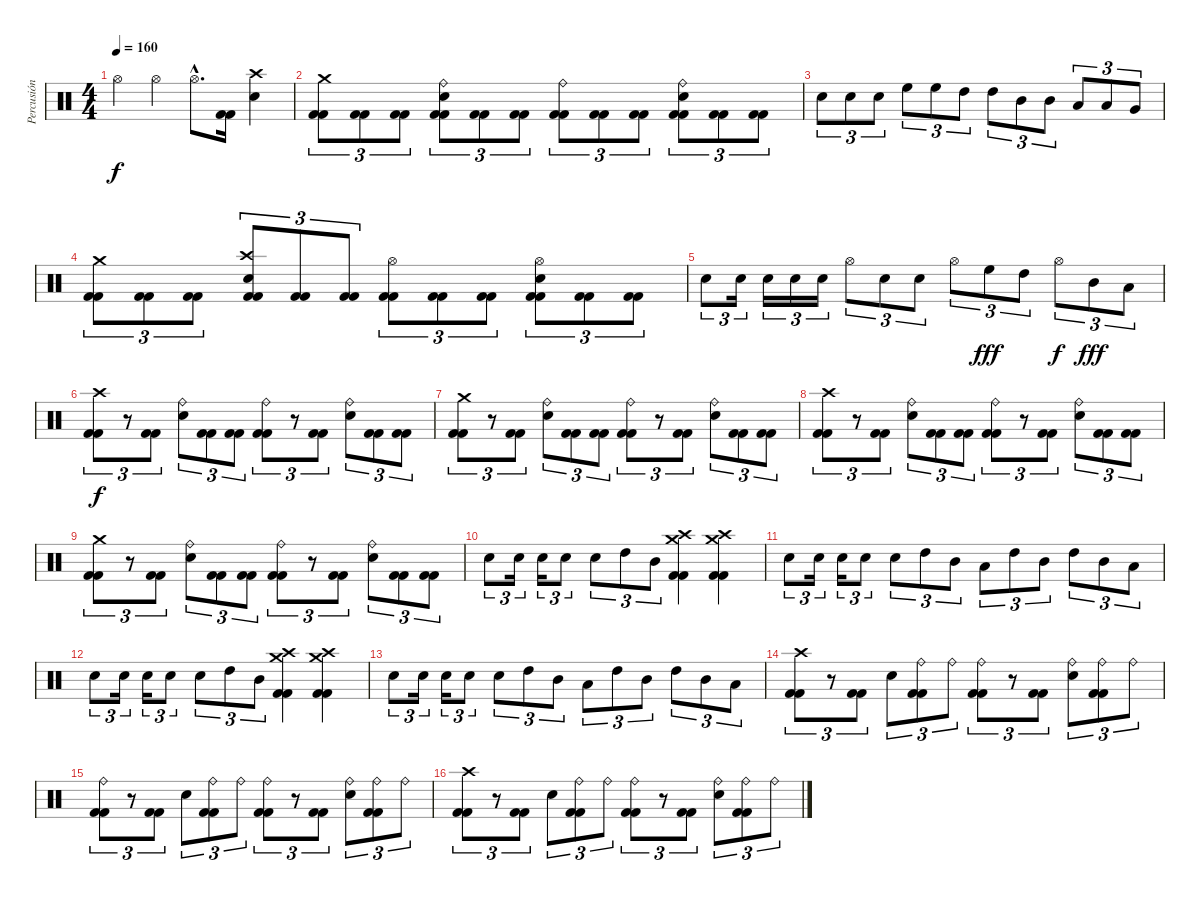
\track ("Percusión" "Percusión") {instrument percussion}
\staff {score}
\articulation defaults
\ts (4 4)
\tempo 160
\clef neutral
\ks c "Hi-Hat (open)".4{dy f} "Hi-Hat (open)".4 "Hi-Hat (open)"{hac}.8{d}
("Kick (hit) 2" "Kick (hit) 2").16 ("Crash high (hit)" "Snare (hit) 2").4 |
("Crash medium (hit)" "Kick (hit) 2" "Kick (hit) 2").8{tu (3 2)} ("Kick (hit) 2" "Kick (hit) 2").8{tu (3 2)} ("Kick (hit) 2" "Kick (hit) 2").8{tu (3 2)} ("Ride (bell)" "Snare (hit) 2" "Kick (hit) 2" "Kick (hit) 2").8{tu (3 2)} ("Kick (hit) 2" "Kick (hit) 2").8{tu (3 2)} ("Kick (hit) 2" "Kick (hit) 2").8{tu (3 2)} ("Ride (bell)" "Kick (hit) 2" "Kick (hit) 2").8{tu (3 2)} ("Kick (hit) 2" "Kick (hit) 2").8{tu (3 2)} ("Kick (hit) 2" "Kick (hit) 2").8{tu (3 2)} ("Ride (bell)" "Snare (hit) 2" "Kick (hit) 2" "Kick (hit) 2").8{tu (3 2)} ("Kick (hit) 2" "Kick (hit) 2").8{tu (3 2)} ("Kick (hit) 2" "Kick (hit) 2").8{tu (3 2)} |
"Snare (hit) 2".8{tu (3 2)} "Snare (hit) 2".8{tu (3 2)} "Snare (hit) 2".8{tu (3 2)} "High Floor Tom (hit)".8{tu (3 2)} "High Floor Tom (hit)".8{tu (3 2)} "High Tom (hit)".8{tu (3 2)} "High Tom (hit)".8{tu (3 2)} "Mid Tom (hit)".8{tu (3 2)} "Mid Tom (hit)".8{tu (3 2)} "Low Tom (hit)".8{tu (3 2)} "Low Tom (hit)".8{tu (3 2)} "Very Low Tom (hit)".8{tu (3 2)} |
("Crash medium (hit)" "Kick (hit) 2" "Kick (hit) 2").8{tu (3 2)} ("Kick (hit) 2" "Kick (hit) 2").8{tu (3 2)} ("Kick (hit) 2" "Kick (hit) 2").8{tu (3 2)} ("Crash high (hit)" "Snare (hit) 2" "Kick (hit) 2" "Kick (hit) 2").8{tu (3 2)} ("Kick (hit) 2" "Kick (hit) 2").8{tu (3 2)} ("Kick (hit) 2" "Kick (hit) 2").8{tu (3 2)} ("Hi-Hat (open)" "Kick (hit) 2" "Kick (hit) 2").8{tu (3 2)} ("Kick (hit) 2" "Kick (hit) 2").8{tu (3 2)} ("Kick (hit) 2" "Kick (hit) 2").8{tu (3 2)} ("Hi-Hat (open)" "Snare (hit) 2" "Kick (hit) 2" "Kick (hit) 2").8{tu (3 2)} ("Kick (hit) 2" "Kick (hit) 2").8{tu (3 2)} ("Kick (hit) 2" "Kick (hit) 2").8{tu (3 2)} |
"Snare (hit) 2".8{tu (3 2)} "Snare (hit) 2".16{tu (3 2)} "Snare (hit) 2".16{tu (3 2)} "Snare (hit) 2".16{tu (3 2)} "Snare (hit) 2".16{tu (3 2)} "Hi-Hat (open)".8{tu (3 2)} "Snare (hit) 2".8{tu (3 2)} "Snare (hit) 2".8{tu (3 2)} "Hi-Hat (open)".8{tu (3 2)} "High Floor Tom (hit)".8{tu (3 2) dy fff} "High Tom (hit)".8{tu (3 2)} "Hi-Hat (open)".8{tu (3 2) dy f} "Mid Tom (hit)".8{tu (3 2) dy fff} "Low Tom (hit)".8{tu (3 2)} |
("Crash high (hit)" "Kick (hit) 2" "Kick (hit) 2").8{tu (3 2) dy f} r.8{tu (3 2)} ("Kick (hit) 2" "Kick (hit) 2").8{tu (3 2)} ("Ride (bell)" "Snare (hit) 2").8{tu (3 2)} ("Kick (hit) 2" "Kick (hit) 2").8{tu (3 2)} ("Kick (hit) 2" "Kick (hit) 2").8{tu (3 2)} ("Ride (bell)" "Kick (hit) 2" "Kick (hit) 2").8{tu (3 2)} r.8{tu (3 2)} ("Kick (hit) 2" "Kick (hit) 2").8{tu (3 2)} ("Ride (bell)" "Snare (hit) 2").8{tu (3 2)} ("Kick (hit) 2" "Kick (hit) 2").8{tu (3 2)} ("Kick (hit) 2" "Kick (hit) 2").8{tu (3 2)} |
("Crash medium (hit)" "Kick (hit) 2" "Kick (hit) 2").8{tu (3 2)} r.8{tu (3 2)} ("Kick (hit) 2" "Kick (hit) 2").8{tu (3 2)} ("Ride (bell)" "Snare (hit) 2").8{tu (3 2)} ("Kick (hit) 2" "Kick (hit) 2").8{tu (3 2)} ("Kick (hit) 2" "Kick (hit) 2").8{tu (3 2)} ("Ride (bell)" "Kick (hit) 2" "Kick (hit) 2").8{tu (3 2)} r.8{tu (3 2)} ("Kick (hit) 2" "Kick (hit) 2").8{tu (3 2)} ("Ride (bell)" "Snare (hit) 2").8{tu (3 2)} ("Kick (hit) 2" "Kick (hit) 2").8{tu (3 2)} ("Kick (hit) 2" "Kick (hit) 2").8{tu (3 2)} |
("Crash high (hit)" "Kick (hit) 2" "Kick (hit) 2").8{tu (3 2)} r.8{tu (3 2)} ("Kick (hit) 2" "Kick (hit) 2").8{tu (3 2)} ("Ride (bell)" "Snare (hit) 2").8{tu (3 2)} ("Kick (hit) 2" "Kick (hit) 2").8{tu (3 2)} ("Kick (hit) 2" "Kick (hit) 2").8{tu (3 2)} ("Ride (bell)" "Kick (hit) 2" "Kick (hit) 2").8{tu (3 2)} r.8{tu (3 2)} ("Kick (hit) 2" "Kick (hit) 2").8{tu (3 2)} ("Ride (bell)" "Snare (hit) 2").8{tu (3 2)} ("Kick (hit) 2" "Kick (hit) 2").8{tu (3 2)} ("Kick (hit) 2" "Kick (hit) 2").8{tu (3 2)} |
("Crash medium (hit)" "Kick (hit) 2" "Kick (hit) 2").8{tu (3 2)} r.8{tu (3 2)} ("Kick (hit) 2" "Kick (hit) 2").8{tu (3 2)} ("Ride (bell)" "Snare (hit) 2").8{tu (3 2)} ("Kick (hit) 2" "Kick (hit) 2").8{tu (3 2)} ("Kick (hit) 2" "Kick (hit) 2").8{tu (3 2)} ("Ride (bell)" "Kick (hit) 2" "Kick (hit) 2").8{tu (3 2)} r.8{tu (3 2)} ("Kick (hit) 2" "Kick (hit) 2").8{tu (3 2)} ("Ride (bell)" "Snare (hit) 2").8{tu (3 2)} ("Kick (hit) 2" "Kick (hit) 2").8{tu (3 2)} ("Kick (hit) 2" "Kick (hit) 2").8{tu (3 2)} |
"Snare (hit) 2".8{tu (3 2)} "Snare (hit) 2".16{tu (3 2)} "Snare (hit) 2".16{tu (3 2)} "Snare (hit) 2".8{tu (3 2)} "Snare (hit) 2".8{tu (3 2)} "High Tom (hit)".8{tu (3 2)} "Mid Tom (hit)".8{tu (3 2)} ("Crash high (hit)" "Crash medium (hit)" "Kick (hit) 2" "Kick (hit) 2").4 ("Crash high (hit)" "Crash medium (hit)" "Kick (hit) 2" "Kick (hit) 2").4 |
"Snare (hit) 2".8{tu (3 2)} "Snare (hit) 2".16{tu (3 2)} "Snare (hit) 2".16{tu (3 2)} "Snare (hit) 2".8{tu (3 2)} "Snare (hit) 2".8{tu (3 2)} "High Tom (hit)".8{tu (3 2)} "Mid Tom (hit)".8{tu (3 2)} "Low Tom (hit)".8{tu (3 2)} "High Tom (hit)".8{tu (3 2)} "Mid Tom (hit)".8{tu (3 2)} "High Tom (hit)".8{tu (3 2)} "Mid Tom (hit)".8{tu (3 2)} "Low Tom (hit)".8{tu (3 2)} |
"Snare (hit) 2".8{tu (3 2)} "Snare (hit) 2".16{tu (3 2)} "Snare (hit) 2".16{tu (3 2)} "Snare (hit) 2".8{tu (3 2)} "Snare (hit) 2".8{tu (3 2)} "High Tom (hit)".8{tu (3 2)} "Mid Tom (hit)".8{tu (3 2)} ("Crash high (hit)" "Crash medium (hit)" "Kick (hit) 2" "Kick (hit) 2").4 ("Crash high (hit)" "Crash medium (hit)" "Kick (hit) 2" "Kick (hit) 2").4 |
"Snare (hit) 2".8{tu (3 2)} "Snare (hit) 2".16{tu (3 2)} "Snare (hit) 2".16{tu (3 2)} "Snare (hit) 2".8{tu (3 2)} "Snare (hit) 2".8{tu (3 2)} "High Tom (hit)".8{tu (3 2)} "Mid Tom (hit)".8{tu (3 2)} "Low Tom (hit)".8{tu (3 2)} "High Tom (hit)".8{tu (3 2)} "Mid Tom (hit)".8{tu (3 2)} "High Tom (hit)".8{tu (3 2)} "Mid Tom (hit)".8{tu (3 2)} "Low Tom (hit)".8{tu (3 2)} |
("Crash high (hit)" "Kick (hit) 2" "Kick (hit) 2").8{tu (3 2)} r.8{tu (3 2)} ("Kick (hit) 2" "Kick (hit) 2").8{tu (3 2)} "Snare (hit) 2".8{tu (3 2)} ("Ride (bell)" "Kick (hit) 2" "Kick (hit) 2").8{tu (3 2)} "Ride (bell)".8{tu (3 2)} ("Ride (bell)" "Kick (hit) 2" "Kick (hit) 2").8{tu (3 2)} r.8{tu (3 2)} ("Kick (hit) 2" "Kick (hit) 2").8{tu (3 2)} ("Ride (bell)" "Snare (hit) 2").8{tu (3 2)} ("Ride (bell)" "Kick (hit) 2" "Kick (hit) 2").8{tu (3 2)} "Ride (bell)".8{tu (3 2)} |
("Ride (bell)" "Kick (hit) 2" "Kick (hit) 2").8{tu (3 2)} r.8{tu (3 2)} ("Kick (hit) 2" "Kick (hit) 2").8{tu (3 2)} "Snare (hit) 2".8{tu (3 2)} ("Ride (bell)" "Kick (hit) 2" "Kick (hit) 2").8{tu (3 2)} "Ride (bell)".8{tu (3 2)} ("Ride (bell)" "Kick (hit) 2" "Kick (hit) 2").8{tu (3 2)} r.8{tu (3 2)} ("Kick (hit) 2" "Kick (hit) 2").8{tu (3 2)} ("Ride (bell)" "Snare (hit) 2").8{tu (3 2)} ("Ride (bell)" "Kick (hit) 2" "Kick (hit) 2").8{tu (3 2)} "Ride (bell)".8{tu (3 2)} |
("Crash high (hit)" "Kick (hit) 2" "Kick (hit) 2").8{tu (3 2)} r.8{tu (3 2)} ("Kick (hit) 2" "Kick (hit) 2").8{tu (3 2)} "Snare (hit) 2".8{tu (3 2)} ("Ride (bell)" "Kick (hit) 2" "Kick (hit) 2").8{tu (3 2)} "Ride (bell)".8{tu (3 2)} ("Ride (bell)" "Kick (hit) 2" "Kick (hit) 2").8{tu (3 2)} r.8{tu (3 2)} ("Kick (hit) 2" "Kick (hit) 2").8{tu (3 2)} ("Ride (bell)" "Snare (hit) 2").8{tu (3 2)} ("Ride (bell)" "Kick (hit) 2" "Kick (hit) 2").8{tu (3 2)} "Ride (bell)".8{tu (3 2)}
